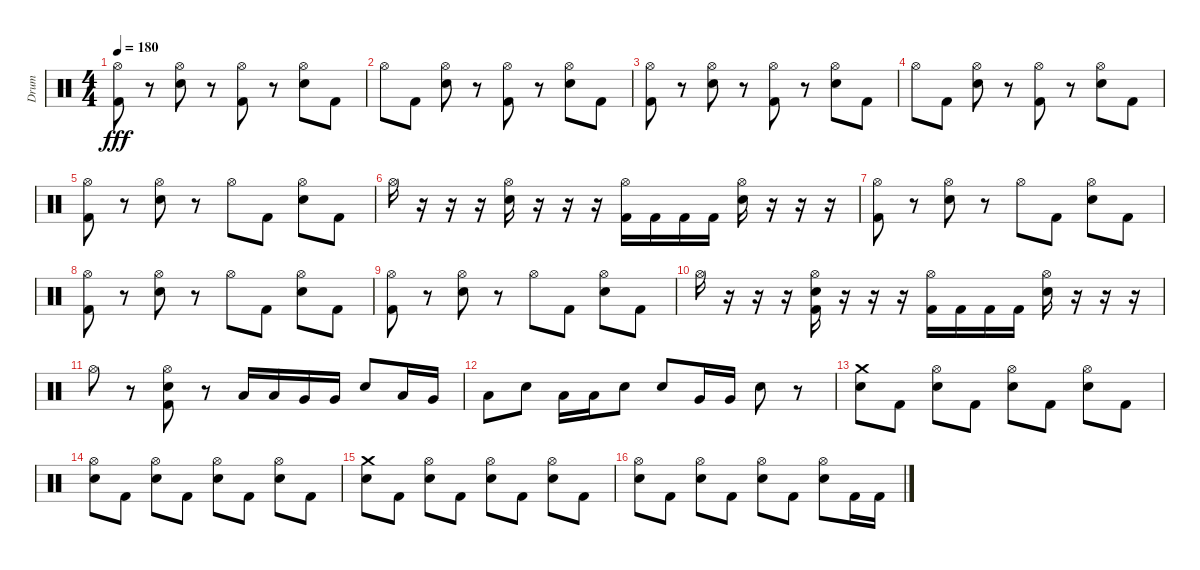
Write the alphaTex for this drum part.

\track ("Drum" "Drum") {instrument percussion}
\staff {score}
\articulation defaults
\ts (4 4)
\tempo 180
\clef neutral
\ks c
("Hi-Hat (open)" "Kick (hit) 2").8{dy fff} r.8 ("Hi-Hat (open)" "Electric Snare (hit)").8 r.8 ("Hi-Hat (open)" "Kick (hit) 2").8 r.8 ("Hi-Hat (open)" "Electric Snare (hit)").8 "Kick (hit) 2".8 |
"Hi-Hat (open)".8 "Kick (hit) 2".8 ("Hi-Hat (open)" "Electric Snare (hit)").8 r.8 ("Hi-Hat (open)" "Kick (hit) 2").8 r.8 ("Hi-Hat (open)" "Electric Snare (hit)").8 "Kick (hit) 2".8 |
("Hi-Hat (open)" "Kick (hit) 2").8 r.8 ("Hi-Hat (open)" "Electric Snare (hit)").8 r.8 ("Hi-Hat (open)" "Kick (hit) 2").8 r.8 ("Hi-Hat (open)" "Electric Snare (hit)").8 "Kick (hit) 2".8 |
"Hi-Hat (open)".8 "Kick (hit) 2".8 ("Hi-Hat (open)" "Electric Snare (hit)").8 r.8 ("Hi-Hat (open)" "Kick (hit) 2").8 r.8 ("Hi-Hat (open)" "Electric Snare (hit)").8 "Kick (hit) 2".8 |
("Hi-Hat (open)" "Kick (hit) 2").8 r.8 ("Hi-Hat (open)" "Electric Snare (hit)").8 r.8 "Hi-Hat (open)".8 "Kick (hit) 2".8 ("Hi-Hat (open)" "Electric Snare (hit)").8 "Kick (hit) 2".8 |
"Hi-Hat (open)".16 r.16 r.16 r.16 ("Hi-Hat (open)" "Electric Snare (hit)").16 r.16 r.16 r.16 ("Hi-Hat (open)" "Kick (hit) 2").16 "Kick (hit) 2".16 "Kick (hit) 2".16 "Kick (hit) 2".16 ("Hi-Hat (open)" "Electric Snare (hit)").16 r.16 r.16 r.16 |
("Hi-Hat (open)" "Kick (hit) 2").8 r.8 ("Hi-Hat (open)" "Electric Snare (hit)").8 r.8 "Hi-Hat (open)".8 "Kick (hit) 2".8 ("Hi-Hat (open)" "Electric Snare (hit)").8 "Kick (hit) 2".8 |
("Hi-Hat (open)" "Kick (hit) 2").8 r.8 ("Hi-Hat (open)" "Electric Snare (hit)").8 r.8 "Hi-Hat (open)".8 "Kick (hit) 2".8 ("Hi-Hat (open)" "Electric Snare (hit)").8 "Kick (hit) 2".8 |
("Hi-Hat (open)" "Kick (hit) 2").8 r.8 ("Hi-Hat (open)" "Electric Snare (hit)").8 r.8 "Hi-Hat (open)".8 "Kick (hit) 2".8 ("Hi-Hat (open)" "Electric Snare (hit)").8 "Kick (hit) 2".8 |
"Hi-Hat (open)".16 r.16 r.16 r.16 ("Hi-Hat (open)" "Electric Snare (hit)" "Kick (hit) 2").16 r.16 r.16 r.16 ("Hi-Hat (open)" "Kick (hit) 2").16 "Kick (hit) 2".16 "Kick (hit) 2".16 "Kick (hit) 2".16 ("Hi-Hat (open)" "Electric Snare (hit)").16 r.16 r.16 r.16 |
"Hi-Hat (open)".8 r.8 ("Hi-Hat (open)" "Electric Snare (hit)" "Kick (hit) 2").8 r.8 "Low Tom (hit)".16 "Low Tom (hit)".16 "Very Low Tom (hit)".16 "Very Low Tom (hit)".16 "Electric Snare (hit)".8 "Low Tom (hit)".16 "Very Low Tom (hit)".16 |
"Low Tom (hit)".8 "Electric Snare (hit)".8 "Low Tom (hit)".16 "Low Tom (hit)".16 "Electric Snare (hit)".8 "Electric Snare (hit)".8 "Very Low Tom (hit)".16 "Very Low Tom (hit)".16 "Electric Snare (hit)".8 r.8 |
("Crash medium (hit)" "Electric Snare (hit)").8 "Kick (hit) 2".8 ("Hi-Hat (open)" "Electric Snare (hit)").8 "Kick (hit) 2".8 ("Hi-Hat (open)" "Electric Snare (hit)").8 "Kick (hit) 2".8 ("Hi-Hat (open)" "Electric Snare (hit)").8 "Kick (hit) 2".8 |
("Hi-Hat (open)" "Electric Snare (hit)").8 "Kick (hit) 2".8 ("Hi-Hat (open)" "Electric Snare (hit)").8 "Kick (hit) 2".8 ("Hi-Hat (open)" "Electric Snare (hit)").8 "Kick (hit) 2".8 ("Hi-Hat (open)" "Electric Snare (hit)").8 "Kick (hit) 2".8 |
("Crash medium (hit)" "Electric Snare (hit)").8 "Kick (hit) 2".8 ("Hi-Hat (open)" "Electric Snare (hit)").8 "Kick (hit) 2".8 ("Hi-Hat (open)" "Electric Snare (hit)").8 "Kick (hit) 2".8 ("Hi-Hat (open)" "Electric Snare (hit)").8 "Kick (hit) 2".8 |
("Hi-Hat (open)" "Electric Snare (hit)").8 "Kick (hit) 2".8 ("Hi-Hat (open)" "Electric Snare (hit)").8 "Kick (hit) 2".8 ("Hi-Hat (open)" "Electric Snare (hit)").8 "Kick (hit) 2".8 ("Hi-Hat (open)" "Electric Snare (hit)").8 "Kick (hit) 2".16 "Kick (hit) 2".16
